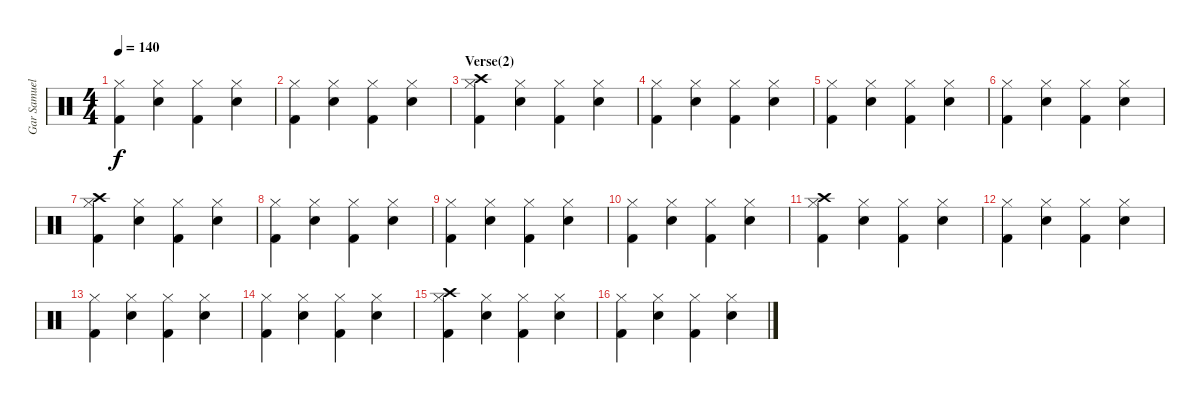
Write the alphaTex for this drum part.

\track ("Gar Samuelson (Drums)" "Gar Samuel") {instrument percussion}
\staff {score}
\articulation defaults
\ts (4 4)
\tempo 140
\clef neutral
\ks c
("Hi-Hat (closed)" "Kick (hit) 2").4{dy f} ("Electric Snare (hit)" "Hi-Hat (closed)").4 ("Hi-Hat (closed)" "Kick (hit) 2").4 ("Electric Snare (hit)" "Hi-Hat (closed)").4 |
("Hi-Hat (closed)" "Kick (hit) 2").4 ("Electric Snare (hit)" "Hi-Hat (closed)").4 ("Hi-Hat (closed)" "Kick (hit) 2").4 ("Electric Snare (hit)" "Hi-Hat (closed)").4 |
\section ("" "Verse(2)")
("Crash high (hit)" "Hi-Hat (closed)" "Kick (hit) 2").4 ("Electric Snare (hit)" "Hi-Hat (closed)").4 ("Hi-Hat (closed)" "Kick (hit) 2").4 ("Electric Snare (hit)" "Hi-Hat (closed)").4 |
("Hi-Hat (closed)" "Kick (hit) 2").4 ("Electric Snare (hit)" "Hi-Hat (closed)").4 ("Hi-Hat (closed)" "Kick (hit) 2").4 ("Electric Snare (hit)" "Hi-Hat (closed)").4 |
("Hi-Hat (closed)" "Kick (hit) 2").4 ("Electric Snare (hit)" "Hi-Hat (closed)").4 ("Hi-Hat (closed)" "Kick (hit) 2").4 ("Electric Snare (hit)" "Hi-Hat (closed)").4 |
("Hi-Hat (closed)" "Kick (hit) 2").4 ("Electric Snare (hit)" "Hi-Hat (closed)").4 ("Hi-Hat (closed)" "Kick (hit) 2").4 ("Electric Snare (hit)" "Hi-Hat (closed)").4 |
("Crash high (hit)" "Hi-Hat (closed)" "Kick (hit) 2").4 ("Electric Snare (hit)" "Hi-Hat (closed)").4 ("Hi-Hat (closed)" "Kick (hit) 2").4 ("Electric Snare (hit)" "Hi-Hat (closed)").4 |
("Hi-Hat (closed)" "Kick (hit) 2").4 ("Electric Snare (hit)" "Hi-Hat (closed)").4 ("Hi-Hat (closed)" "Kick (hit) 2").4 ("Electric Snare (hit)" "Hi-Hat (closed)").4 |
("Hi-Hat (closed)" "Kick (hit) 2").4 ("Electric Snare (hit)" "Hi-Hat (closed)").4 ("Hi-Hat (closed)" "Kick (hit) 2").4 ("Electric Snare (hit)" "Hi-Hat (closed)").4 |
("Hi-Hat (closed)" "Kick (hit) 2").4 ("Electric Snare (hit)" "Hi-Hat (closed)").4 ("Hi-Hat (closed)" "Kick (hit) 2").4 ("Electric Snare (hit)" "Hi-Hat (closed)").4 |
("Crash high (hit)" "Hi-Hat (closed)" "Kick (hit) 2").4 ("Electric Snare (hit)" "Hi-Hat (closed)").4 ("Hi-Hat (closed)" "Kick (hit) 2").4 ("Electric Snare (hit)" "Hi-Hat (closed)").4 |
("Hi-Hat (closed)" "Kick (hit) 2").4 ("Electric Snare (hit)" "Hi-Hat (closed)").4 ("Hi-Hat (closed)" "Kick (hit) 2").4 ("Electric Snare (hit)" "Hi-Hat (closed)").4 |
("Hi-Hat (closed)" "Kick (hit) 2").4 ("Electric Snare (hit)" "Hi-Hat (closed)").4 ("Hi-Hat (closed)" "Kick (hit) 2").4 ("Electric Snare (hit)" "Hi-Hat (closed)").4 |
("Hi-Hat (closed)" "Kick (hit) 2").4 ("Electric Snare (hit)" "Hi-Hat (closed)").4 ("Hi-Hat (closed)" "Kick (hit) 2").4 ("Electric Snare (hit)" "Hi-Hat (closed)").4 |
("Crash high (hit)" "Hi-Hat (closed)" "Kick (hit) 2").4 ("Electric Snare (hit)" "Hi-Hat (closed)").4 ("Hi-Hat (closed)" "Kick (hit) 2").4 ("Electric Snare (hit)" "Hi-Hat (closed)").4 |
("Hi-Hat (closed)" "Kick (hit) 2").4 ("Electric Snare (hit)" "Hi-Hat (closed)").4 ("Hi-Hat (closed)" "Kick (hit) 2").4 ("Electric Snare (hit)" "Hi-Hat (closed)").4
